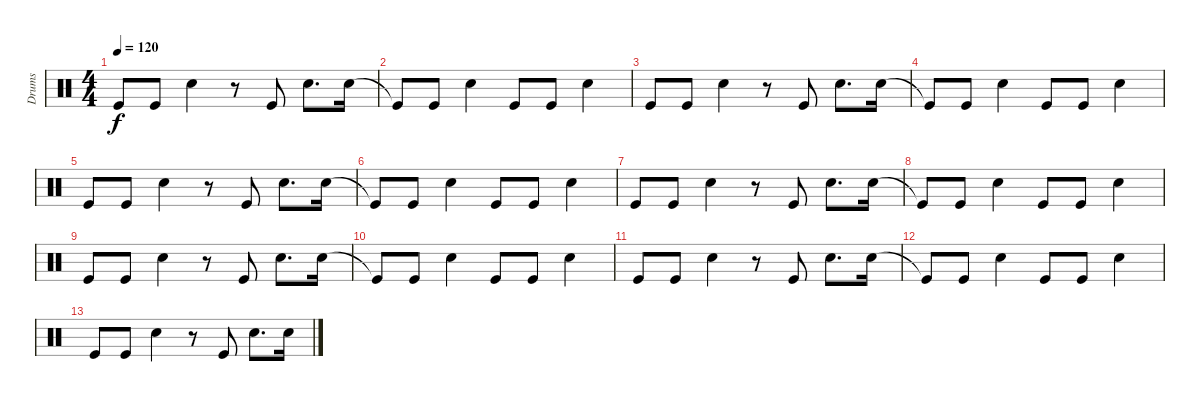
\track ("Drums" "Drums") {instrument percussion}
\staff {score}
\articulation defaults
\ts (4 4)
\tempo 120
\clef neutral
\ks c "Kick (hit)".8{dy f} "Kick (hit)".8 "Snare (hit) 2".4
r.8 "Kick (hit)".8 "Snare (hit) 2".8{d} "Snare (hit) 2".16 |
"Kick (hit)"{t}.8 "Kick (hit)".8 "Snare (hit) 2".4 "Kick (hit)".8 "Kick (hit)".8 "Snare (hit) 2".4 |
"Kick (hit)".8 "Kick (hit)".8 "Snare (hit) 2".4 r.8 "Kick (hit)".8 "Snare (hit) 2".8{d} "Snare (hit) 2".16 |
"Kick (hit)"{t}.8 "Kick (hit)".8 "Snare (hit) 2".4 "Kick (hit)".8 "Kick (hit)".8 "Snare (hit) 2".4 |
"Kick (hit)".8 "Kick (hit)".8 "Snare (hit) 2".4 r.8 "Kick (hit)".8 "Snare (hit) 2".8{d} "Snare (hit) 2".16 |
"Kick (hit)"{t}.8 "Kick (hit)".8 "Snare (hit) 2".4 "Kick (hit)".8 "Kick (hit)".8 "Snare (hit) 2".4 |
"Kick (hit)".8 "Kick (hit)".8 "Snare (hit) 2".4 r.8 "Kick (hit)".8 "Snare (hit) 2".8{d} "Snare (hit) 2".16 |
"Kick (hit)"{t}.8 "Kick (hit)".8 "Snare (hit) 2".4 "Kick (hit)".8 "Kick (hit)".8 "Snare (hit) 2".4 |
"Kick (hit)".8 "Kick (hit)".8 "Snare (hit) 2".4 r.8 "Kick (hit)".8 "Snare (hit) 2".8{d} "Snare (hit) 2".16 |
"Kick (hit)"{t}.8 "Kick (hit)".8 "Snare (hit) 2".4 "Kick (hit)".8 "Kick (hit)".8 "Snare (hit) 2".4 |
"Kick (hit)".8 "Kick (hit)".8 "Snare (hit) 2".4 r.8 "Kick (hit)".8 "Snare (hit) 2".8{d} "Snare (hit) 2".16 |
"Kick (hit)"{t}.8 "Kick (hit)".8 "Snare (hit) 2".4 "Kick (hit)".8 "Kick (hit)".8 "Snare (hit) 2".4 |
"Kick (hit)".8 "Kick (hit)".8 "Snare (hit) 2".4 r.8 "Kick (hit)".8 "Snare (hit) 2".8{d} "Snare (hit) 2".16
